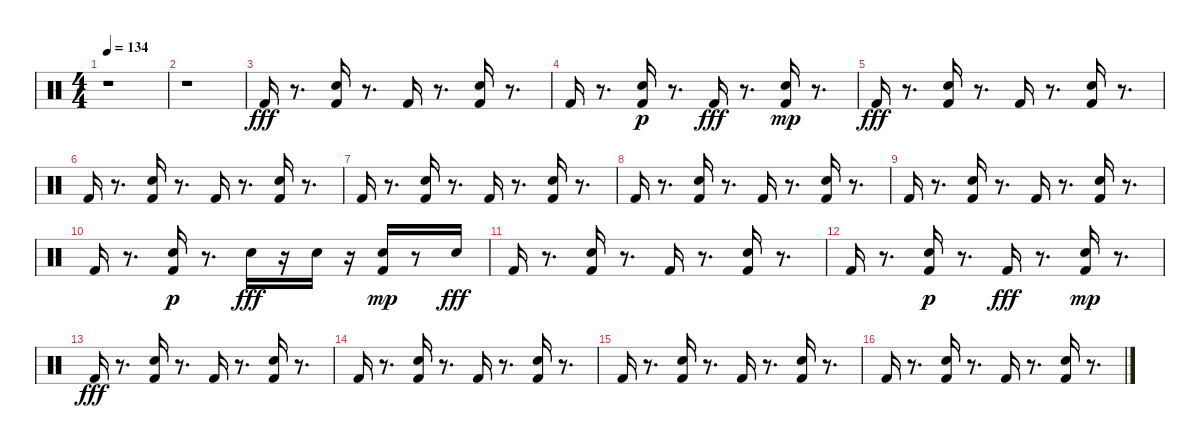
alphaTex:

\track "" {instrument percussion}
\staff {score}
\articulation defaults
\ts (4 4)
\tempo 134
\clef neutral
\ks c
r.1{dy fff} |
r.1 |
"Kick (hit) 2".16 r.8{d} ("Kick (hit) 2" "Snare (hit) 2").16 r.8{d} "Kick (hit) 2".16 r.8{d} ("Kick (hit) 2" "Snare (hit) 2").16 r.8{d} |
"Kick (hit) 2".16 r.8{d} ("Snare (hit) 2" "Kick (hit) 2").16{dy p} r.8{d} "Kick (hit) 2".16{dy fff} r.8{d} ("Snare (hit) 2" "Kick (hit) 2").16{dy mp} r.8{d} |
"Kick (hit) 2".16{dy fff} r.8{d} ("Kick (hit) 2" "Snare (hit) 2").16 r.8{d} "Kick (hit) 2".16 r.8{d} ("Kick (hit) 2" "Snare (hit) 2").16 r.8{d} |
"Kick (hit) 2".16 r.8{d} ("Kick (hit) 2" "Snare (hit) 2").16 r.8{d} "Kick (hit) 2".16 r.8{d} ("Kick (hit) 2" "Snare (hit) 2").16 r.8{d} |
"Kick (hit) 2".16 r.8{d} ("Kick (hit) 2" "Snare (hit) 2").16 r.8{d} "Kick (hit) 2".16 r.8{d} ("Kick (hit) 2" "Snare (hit) 2").16 r.8{d} |
"Kick (hit) 2".16 r.8{d} ("Kick (hit) 2" "Snare (hit) 2").16 r.8{d} "Kick (hit) 2".16 r.8{d} ("Kick (hit) 2" "Snare (hit) 2").16 r.8{d} |
"Kick (hit) 2".16 r.8{d} ("Kick (hit) 2" "Snare (hit) 2").16 r.8{d} "Kick (hit) 2".16 r.8{d} ("Kick (hit) 2" "Snare (hit) 2").16 r.8{d} |
"Kick (hit) 2".16 r.8{d} ("Snare (hit) 2" "Kick (hit) 2").16{dy p} r.8{d} "Snare (hit) 2".16{dy fff} r.16 "Snare (hit) 2".16 r.16 ("Snare (hit) 2" "Kick (hit) 2").16{dy mp} r.8 "Snare (hit) 2".16{dy fff} |
"Kick (hit) 2".16 r.8{d} ("Kick (hit) 2" "Snare (hit) 2").16 r.8{d} "Kick (hit) 2".16 r.8{d} ("Kick (hit) 2" "Snare (hit) 2").16 r.8{d} |
"Kick (hit) 2".16 r.8{d} ("Snare (hit) 2" "Kick (hit) 2").16{dy p} r.8{d} "Kick (hit) 2".16{dy fff} r.8{d} ("Snare (hit) 2" "Kick (hit) 2").16{dy mp} r.8{d} |
"Kick (hit) 2".16{dy fff} r.8{d} ("Kick (hit) 2" "Snare (hit) 2").16 r.8{d} "Kick (hit) 2".16 r.8{d} ("Kick (hit) 2" "Snare (hit) 2").16 r.8{d} |
"Kick (hit) 2".16 r.8{d} ("Kick (hit) 2" "Snare (hit) 2").16 r.8{d} "Kick (hit) 2".16 r.8{d} ("Kick (hit) 2" "Snare (hit) 2").16 r.8{d} |
"Kick (hit) 2".16 r.8{d} ("Kick (hit) 2" "Snare (hit) 2").16 r.8{d} "Kick (hit) 2".16 r.8{d} ("Kick (hit) 2" "Snare (hit) 2").16 r.8{d} |
"Kick (hit) 2".16 r.8{d} ("Kick (hit) 2" "Snare (hit) 2").16 r.8{d} "Kick (hit) 2".16 r.8{d} ("Kick (hit) 2" "Snare (hit) 2").16 r.8{d}
